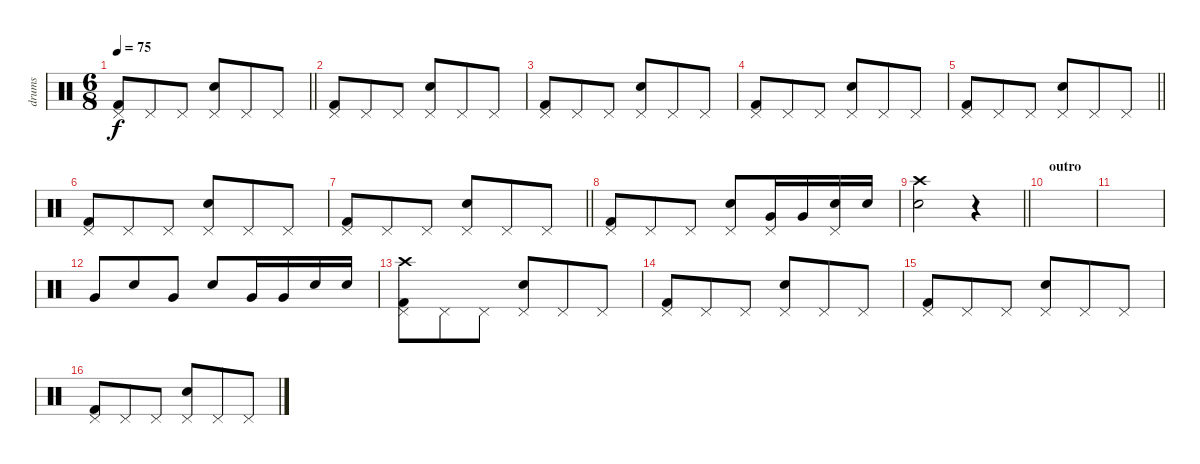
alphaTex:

\track ("drums" "drums") {instrument percussion}
\staff {score}
\articulation defaults
\ts (6 8)
\tempo 75
\clef neutral
\barLineRight lightlight
\ks c
("Kick (hit) 2" "Pedal Hi-Hat (hit)").8{dy f} "Pedal Hi-Hat (hit)".8 "Pedal Hi-Hat (hit)".8 ("Electric Snare (hit)" "Pedal Hi-Hat (hit)").8 "Pedal Hi-Hat (hit)".8 "Pedal Hi-Hat (hit)".8 |
("Kick (hit) 2" "Pedal Hi-Hat (hit)").8 "Pedal Hi-Hat (hit)".8 "Pedal Hi-Hat (hit)".8 ("Electric Snare (hit)" "Pedal Hi-Hat (hit)").8 "Pedal Hi-Hat (hit)".8 "Pedal Hi-Hat (hit)".8 |
("Kick (hit) 2" "Pedal Hi-Hat (hit)").8 "Pedal Hi-Hat (hit)".8 "Pedal Hi-Hat (hit)".8 ("Electric Snare (hit)" "Pedal Hi-Hat (hit)").8 "Pedal Hi-Hat (hit)".8 "Pedal Hi-Hat (hit)".8 |
("Kick (hit) 2" "Pedal Hi-Hat (hit)").8 "Pedal Hi-Hat (hit)".8 "Pedal Hi-Hat (hit)".8 ("Electric Snare (hit)" "Pedal Hi-Hat (hit)").8 "Pedal Hi-Hat (hit)".8 "Pedal Hi-Hat (hit)".8 |
\barLineRight lightlight
("Kick (hit) 2" "Pedal Hi-Hat (hit)").8 "Pedal Hi-Hat (hit)".8 "Pedal Hi-Hat (hit)".8 ("Electric Snare (hit)" "Pedal Hi-Hat (hit)").8 "Pedal Hi-Hat (hit)".8 "Pedal Hi-Hat (hit)".8 |
("Kick (hit) 2" "Pedal Hi-Hat (hit)").8 "Pedal Hi-Hat (hit)".8 "Pedal Hi-Hat (hit)".8 ("Electric Snare (hit)" "Pedal Hi-Hat (hit)").8 "Pedal Hi-Hat (hit)".8 "Pedal Hi-Hat (hit)".8 |
\barLineRight lightlight
("Kick (hit) 2" "Pedal Hi-Hat (hit)").8 "Pedal Hi-Hat (hit)".8 "Pedal Hi-Hat (hit)".8 ("Electric Snare (hit)" "Pedal Hi-Hat (hit)").8 "Pedal Hi-Hat (hit)".8 "Pedal Hi-Hat (hit)".8 |
("Kick (hit) 2" "Pedal Hi-Hat (hit)").8 "Pedal Hi-Hat (hit)".8 "Pedal Hi-Hat (hit)".8 ("Electric Snare (hit)" "Pedal Hi-Hat (hit)").8 ("Very Low Tom (hit)" "Pedal Hi-Hat (hit)").16 "Very Low Tom (hit)".16 ("Electric Snare (hit)" "Pedal Hi-Hat (hit)").16 "Electric Snare (hit)".16 |
\barLineRight lightlight
("Electric Snare (hit)" "Crash high (hit)").2 r.4 |
\section ("" "outro")
|
|
"Very Low Tom (hit)".8 "Electric Snare (hit)".8 "Very Low Tom (hit)".8 "Electric Snare (hit)".8 "Very Low Tom (hit)".16 "Very Low Tom (hit)".16 "Electric Snare (hit)".16 "Electric Snare (hit)".16 |
("Kick (hit) 2" "Pedal Hi-Hat (hit)" "Crash high (hit)").8 "Pedal Hi-Hat (hit)".8 "Pedal Hi-Hat (hit)".8 ("Electric Snare (hit)" "Pedal Hi-Hat (hit)").8 "Pedal Hi-Hat (hit)".8 "Pedal Hi-Hat (hit)".8 |
("Kick (hit) 2" "Pedal Hi-Hat (hit)").8 "Pedal Hi-Hat (hit)".8 "Pedal Hi-Hat (hit)".8 ("Electric Snare (hit)" "Pedal Hi-Hat (hit)").8 "Pedal Hi-Hat (hit)".8 "Pedal Hi-Hat (hit)".8 |
("Kick (hit) 2" "Pedal Hi-Hat (hit)").8 "Pedal Hi-Hat (hit)".8 "Pedal Hi-Hat (hit)".8 ("Electric Snare (hit)" "Pedal Hi-Hat (hit)").8 "Pedal Hi-Hat (hit)".8 "Pedal Hi-Hat (hit)".8 |
("Kick (hit) 2" "Pedal Hi-Hat (hit)").8 "Pedal Hi-Hat (hit)".8 "Pedal Hi-Hat (hit)".8 ("Electric Snare (hit)" "Pedal Hi-Hat (hit)").8 "Pedal Hi-Hat (hit)".8 "Pedal Hi-Hat (hit)".8
